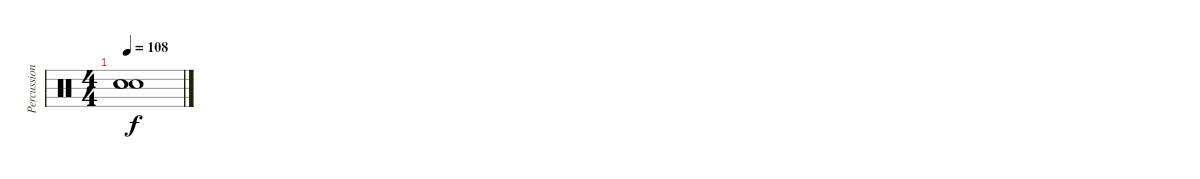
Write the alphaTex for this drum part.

\track ("Percussion" "Percussion") {instrument percussion}
\staff {score}
\articulation defaults
\ts (4 4)
\tempo 108
\clef neutral
\ks c
("Snare (hit)"{t} "Snare (hit)"{t} "Snare (hit)"{t}).1{dy f}
